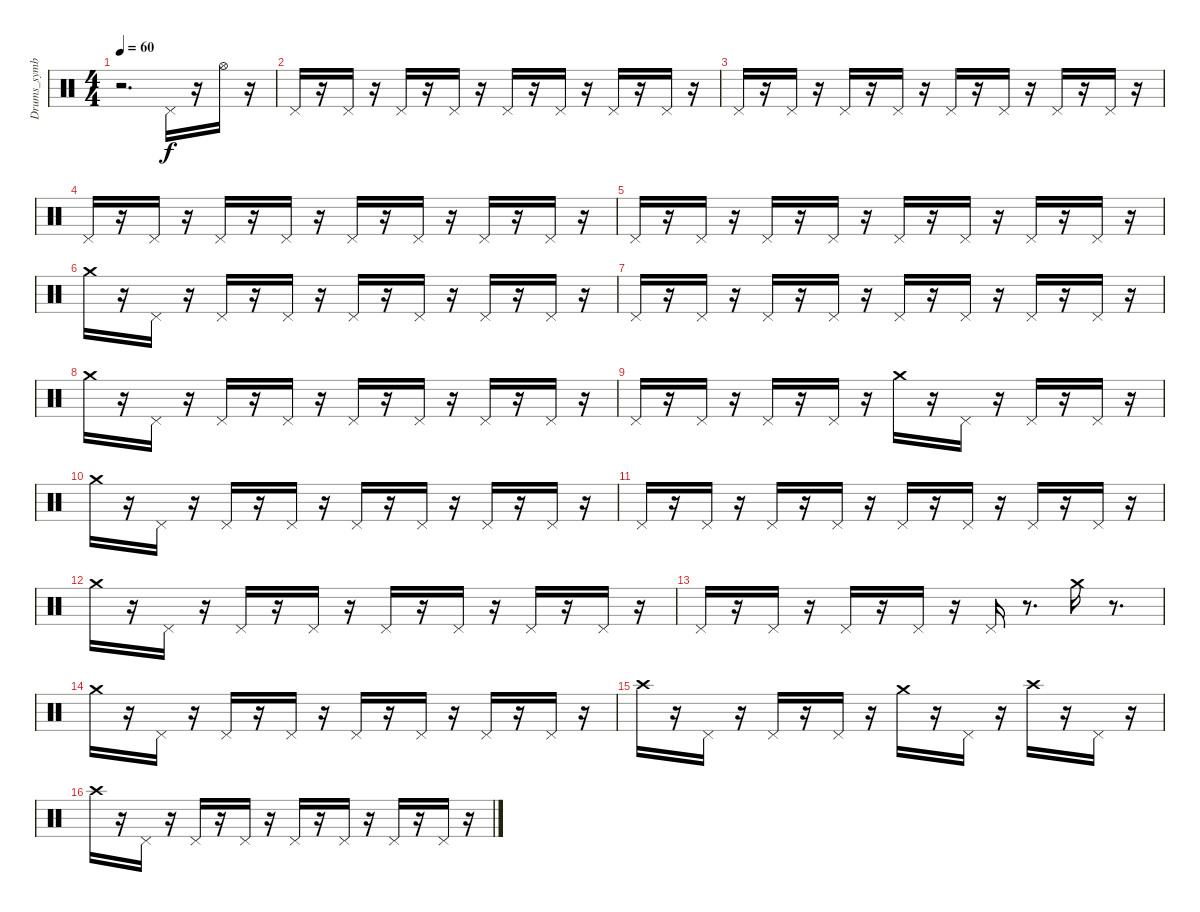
\track ("Drums_symbal" "Drums_symb") {instrument percussion}
\staff {score}
\articulation defaults
\ts (4 4)
\tempo 60
\clef neutral
\ks c
r.2{d dy f} "Pedal Hi-Hat (hit)".16 r.16 "Hi-Hat (open)".16 r.16 |
"Pedal Hi-Hat (hit)".16 r.16 "Pedal Hi-Hat (hit)".16 r.16 "Pedal Hi-Hat (hit)".16 r.16 "Pedal Hi-Hat (hit)".16 r.16 "Pedal Hi-Hat (hit)".16 r.16 "Pedal Hi-Hat (hit)".16 r.16 "Pedal Hi-Hat (hit)".16 r.16 "Pedal Hi-Hat (hit)".16 r.16 |
"Pedal Hi-Hat (hit)".16 r.16 "Pedal Hi-Hat (hit)".16 r.16 "Pedal Hi-Hat (hit)".16 r.16 "Pedal Hi-Hat (hit)".16 r.16 "Pedal Hi-Hat (hit)".16 r.16 "Pedal Hi-Hat (hit)".16 r.16 "Pedal Hi-Hat (hit)".16 r.16 "Pedal Hi-Hat (hit)".16 r.16 |
"Pedal Hi-Hat (hit)".16 r.16 "Pedal Hi-Hat (hit)".16 r.16 "Pedal Hi-Hat (hit)".16 r.16 "Pedal Hi-Hat (hit)".16 r.16 "Pedal Hi-Hat (hit)".16 r.16 "Pedal Hi-Hat (hit)".16 r.16 "Pedal Hi-Hat (hit)".16 r.16 "Pedal Hi-Hat (hit)".16 r.16 |
"Pedal Hi-Hat (hit)".16 r.16 "Pedal Hi-Hat (hit)".16 r.16 "Pedal Hi-Hat (hit)".16 r.16 "Pedal Hi-Hat (hit)".16 r.16 "Pedal Hi-Hat (hit)".16 r.16 "Pedal Hi-Hat (hit)".16 r.16 "Pedal Hi-Hat (hit)".16 r.16 "Pedal Hi-Hat (hit)".16 r.16 |
"Crash medium (hit)".16 r.16 "Pedal Hi-Hat (hit)".16 r.16 "Pedal Hi-Hat (hit)".16 r.16 "Pedal Hi-Hat (hit)".16 r.16 "Pedal Hi-Hat (hit)".16 r.16 "Pedal Hi-Hat (hit)".16 r.16 "Pedal Hi-Hat (hit)".16 r.16 "Pedal Hi-Hat (hit)".16 r.16 |
"Pedal Hi-Hat (hit)".16 r.16 "Pedal Hi-Hat (hit)".16 r.16 "Pedal Hi-Hat (hit)".16 r.16 "Pedal Hi-Hat (hit)".16 r.16 "Pedal Hi-Hat (hit)".16 r.16 "Pedal Hi-Hat (hit)".16 r.16 "Pedal Hi-Hat (hit)".16 r.16 "Pedal Hi-Hat (hit)".16 r.16 |
"Crash medium (hit)".16 r.16 "Pedal Hi-Hat (hit)".16 r.16 "Pedal Hi-Hat (hit)".16 r.16 "Pedal Hi-Hat (hit)".16 r.16 "Pedal Hi-Hat (hit)".16 r.16 "Pedal Hi-Hat (hit)".16 r.16 "Pedal Hi-Hat (hit)".16 r.16 "Pedal Hi-Hat (hit)".16 r.16 |
"Pedal Hi-Hat (hit)".16 r.16 "Pedal Hi-Hat (hit)".16 r.16 "Pedal Hi-Hat (hit)".16 r.16 "Pedal Hi-Hat (hit)".16 r.16 "Crash medium (hit)".16 r.16 "Pedal Hi-Hat (hit)".16 r.16 "Pedal Hi-Hat (hit)".16 r.16 "Pedal Hi-Hat (hit)".16 r.16 |
"Crash medium (hit)".16 r.16 "Pedal Hi-Hat (hit)".16 r.16 "Pedal Hi-Hat (hit)".16 r.16 "Pedal Hi-Hat (hit)".16 r.16 "Pedal Hi-Hat (hit)".16 r.16 "Pedal Hi-Hat (hit)".16 r.16 "Pedal Hi-Hat (hit)".16 r.16 "Pedal Hi-Hat (hit)".16 r.16 |
"Pedal Hi-Hat (hit)".16 r.16 "Pedal Hi-Hat (hit)".16 r.16 "Pedal Hi-Hat (hit)".16 r.16 "Pedal Hi-Hat (hit)".16 r.16 "Pedal Hi-Hat (hit)".16 r.16 "Pedal Hi-Hat (hit)".16 r.16 "Pedal Hi-Hat (hit)".16 r.16 "Pedal Hi-Hat (hit)".16 r.16 |
"Crash medium (hit)".16 r.16 "Pedal Hi-Hat (hit)".16 r.16 "Pedal Hi-Hat (hit)".16 r.16 "Pedal Hi-Hat (hit)".16 r.16 "Pedal Hi-Hat (hit)".16 r.16 "Pedal Hi-Hat (hit)".16 r.16 "Pedal Hi-Hat (hit)".16 r.16 "Pedal Hi-Hat (hit)".16 r.16 |
"Pedal Hi-Hat (hit)".16 r.16 "Pedal Hi-Hat (hit)".16 r.16 "Pedal Hi-Hat (hit)".16 r.16 "Pedal Hi-Hat (hit)".16 r.16 "Pedal Hi-Hat (hit)".16 r.8{d} "Crash medium (hit)".16 r.8{d} |
"Crash medium (hit)".16 r.16 "Pedal Hi-Hat (hit)".16 r.16 "Pedal Hi-Hat (hit)".16 r.16 "Pedal Hi-Hat (hit)".16 r.16 "Pedal Hi-Hat (hit)".16 r.16 "Pedal Hi-Hat (hit)".16 r.16 "Pedal Hi-Hat (hit)".16 r.16 "Pedal Hi-Hat (hit)".16 r.16 |
"Crash high (hit)".16 r.16 "Pedal Hi-Hat (hit)".16 r.16 "Pedal Hi-Hat (hit)".16 r.16 "Pedal Hi-Hat (hit)".16 r.16 "Crash medium (hit)".16 r.16 "Pedal Hi-Hat (hit)".16 r.16 "Crash high (hit)".16 r.16 "Pedal Hi-Hat (hit)".16 r.16 |
"Crash high (hit)".16 r.16 "Pedal Hi-Hat (hit)".16 r.16 "Pedal Hi-Hat (hit)".16 r.16 "Pedal Hi-Hat (hit)".16 r.16 "Pedal Hi-Hat (hit)".16 r.16 "Pedal Hi-Hat (hit)".16 r.16 "Pedal Hi-Hat (hit)".16 r.16 "Pedal Hi-Hat (hit)".16 r.16
